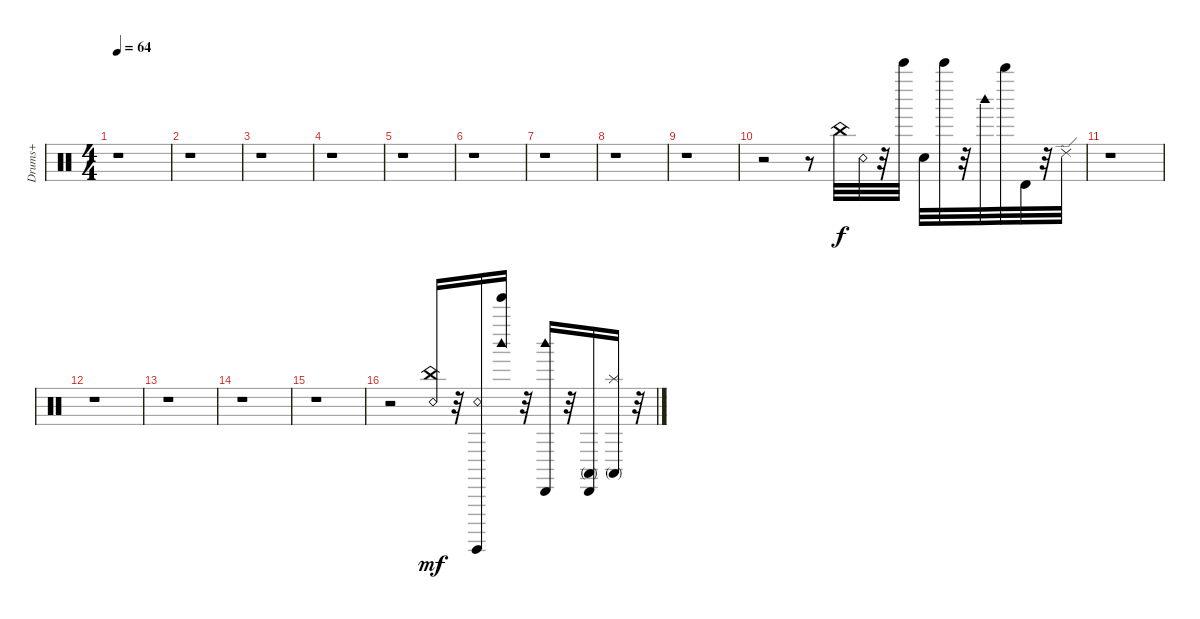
\track ("Drums+" "Drums+") {instrument percussion}
\staff {score}
\articulation defaults
\ts (4 4)
\tempo 64
\clef neutral
\ks c
r.1{dy f} |
r.1 |
r.1 |
r.1 |
r.1 |
r.1 |
r.1 |
r.1 |
r.1 |
r.2 r.8 "China (choke)".32 "Snare (rim shot)".32 r.32 "Bell Tree (hit)".32 "Snare (hit)".32 "Bell Tree (hit)".32 r.32 "Woodblock high (hit)".32 "Whistle high (hit)".32 "Timbale high (hit)".32 r.32 "Ride (edge) 2".32 |
r.1 |
r.1 |
r.1 |
r.1 |
r.1 |
r.2 ("Snare (rim shot)" "China (choke)").16{dy mf} r.32 ("Surdo (hit)" "Snare (rim shot)").16 ("Woodblock high (hit)" "Tinkle Bell (hit)").16 r.32 ("Cabasa (hit)" "Woodblock high (hit)").16 r.32 ("Conga high (mute)" "Cabasa (hit)").16 ("Splash (hit)" "Conga high (mute)").16 r.32
